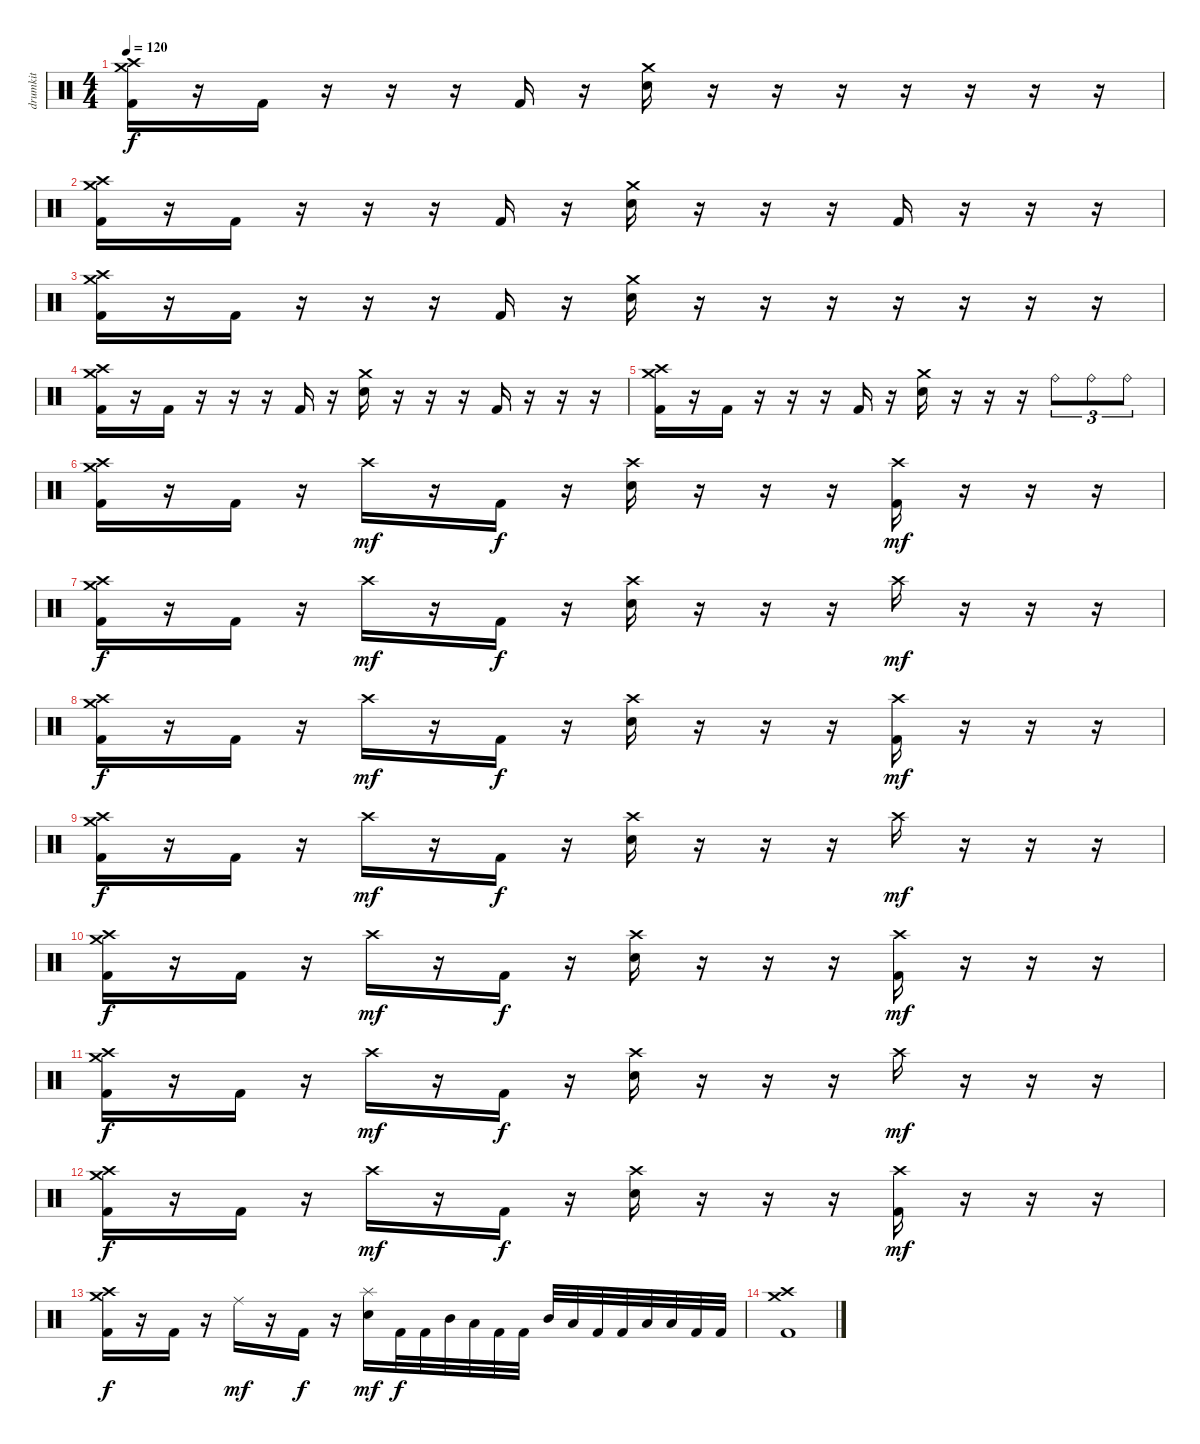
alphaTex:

\track ("drumkit" "drumkit") {instrument percussion}
\staff {score}
\articulation defaults
\ts (4 4)
\tempo 120
\clef neutral
\ks c
("Crash high (hit)" "Crash medium (hit)" "Kick (hit) 2").16{dy f} r.16 "Kick (hit) 2".16 r.16 r.16 r.16 "Kick (hit) 2".16 r.16 ("Crash medium (hit)" "Electric Snare (hit)").16 r.16 r.16 r.16 r.16 r.16 r.16 r.16 |
("Crash high (hit)" "Crash medium (hit)" "Kick (hit) 2").16 r.16 "Kick (hit) 2".16 r.16 r.16 r.16 "Kick (hit) 2".16 r.16 ("Crash medium (hit)" "Electric Snare (hit)").16 r.16 r.16 r.16 "Kick (hit) 2".16 r.16 r.16 r.16 |
("Crash high (hit)" "Crash medium (hit)" "Kick (hit) 2").16 r.16 "Kick (hit) 2".16 r.16 r.16 r.16 "Kick (hit) 2".16 r.16 ("Crash medium (hit)" "Electric Snare (hit)").16 r.16 r.16 r.16 r.16 r.16 r.16 r.16 |
("Crash high (hit)" "Crash medium (hit)" "Kick (hit) 2").16 r.16 "Kick (hit) 2".16 r.16 r.16 r.16 "Kick (hit) 2".16 r.16 ("Crash medium (hit)" "Electric Snare (hit)").16 r.16 r.16 r.16 "Kick (hit) 2".16 r.16 r.16 r.16 |
("Crash high (hit)" "Crash medium (hit)" "Kick (hit) 2").16 r.16 "Kick (hit) 2".16 r.16 r.16 r.16 "Kick (hit) 2".16 r.16 ("Crash medium (hit)" "Electric Snare (hit)").16 r.16 r.16 r.16 "Ride (bell)".8{tu (3 2)} "Ride (bell)".8{tu (3 2)} "Ride (bell)".8{tu (3 2)} |
("Crash high (hit)" "Crash medium (hit)" "Kick (hit) 2").16 r.16 "Kick (hit) 2".16 r.16 "Crash high (hit)".16{dy mf} r.16 "Kick (hit) 2".16{dy f} r.16 ("Crash high (hit)" "Electric Snare (hit)").16 r.16 r.16 r.16 ("Crash high (hit)" "Kick (hit) 2").16{dy mf} r.16 r.16 r.16 |
("Crash high (hit)" "Crash medium (hit)" "Kick (hit) 2").16{dy f} r.16 "Kick (hit) 2".16 r.16 "Crash high (hit)".16{dy mf} r.16 "Kick (hit) 2".16{dy f} r.16 ("Crash high (hit)" "Electric Snare (hit)").16 r.16 r.16 r.16 "Crash high (hit)".16{dy mf} r.16 r.16 r.16 |
("Crash high (hit)" "Crash medium (hit)" "Kick (hit) 2").16{dy f} r.16 "Kick (hit) 2".16 r.16 "Crash high (hit)".16{dy mf} r.16 "Kick (hit) 2".16{dy f} r.16 ("Crash high (hit)" "Electric Snare (hit)").16 r.16 r.16 r.16 ("Crash high (hit)" "Kick (hit) 2").16{dy mf} r.16 r.16 r.16 |
("Crash high (hit)" "Crash medium (hit)" "Kick (hit) 2").16{dy f} r.16 "Kick (hit) 2".16 r.16 "Crash high (hit)".16{dy mf} r.16 "Kick (hit) 2".16{dy f} r.16 ("Crash high (hit)" "Electric Snare (hit)").16 r.16 r.16 r.16 "Crash high (hit)".16{dy mf} r.16 r.16 r.16 |
("Crash high (hit)" "Crash medium (hit)" "Kick (hit) 2").16{dy f} r.16 "Kick (hit) 2".16 r.16 "Crash high (hit)".16{dy mf} r.16 "Kick (hit) 2".16{dy f} r.16 ("Crash high (hit)" "Electric Snare (hit)").16 r.16 r.16 r.16 ("Crash high (hit)" "Kick (hit) 2").16{dy mf} r.16 r.16 r.16 |
("Crash high (hit)" "Crash medium (hit)" "Kick (hit) 2").16{dy f} r.16 "Kick (hit) 2".16 r.16 "Crash high (hit)".16{dy mf} r.16 "Kick (hit) 2".16{dy f} r.16 ("Crash high (hit)" "Electric Snare (hit)").16 r.16 r.16 r.16 "Crash high (hit)".16{dy mf} r.16 r.16 r.16 |
("Crash high (hit)" "Crash medium (hit)" "Kick (hit) 2").16{dy f} r.16 "Kick (hit) 2".16 r.16 "Crash high (hit)".16{dy mf} r.16 "Kick (hit) 2".16{dy f} r.16 ("Crash high (hit)" "Electric Snare (hit)").16 r.16 r.16 r.16 ("Crash high (hit)" "Kick (hit) 2").16{dy mf} r.16 r.16 r.16 |
("Crash high (hit)" "Crash medium (hit)" "Kick (hit) 2").16{dy f} r.16 "Kick (hit) 2".16 r.16 "Ride (middle)".16{dy mf} r.16 "Kick (hit) 2".16{dy f} r.16 ("Splash (hit)" "Electric Snare (hit)").16{dy mf} "Kick (hit) 2".32{dy f} "Kick (hit) 2".32 "Mid Tom (hit)".32 "Low Floor Tom (hit)".32 "Kick (hit) 2".32 "Kick (hit) 2".32 "Mid Tom (hit)".32 "Low Floor Tom (hit)".32 "Kick (hit) 2".32 "Kick (hit) 2".32 "Low Tom (hit)".32 "Low Floor Tom (hit)".32 "Kick (hit) 2".32 "Kick (hit) 2".32 |
("Crash high (hit)" "Crash medium (hit)" "Kick (hit) 2").1
